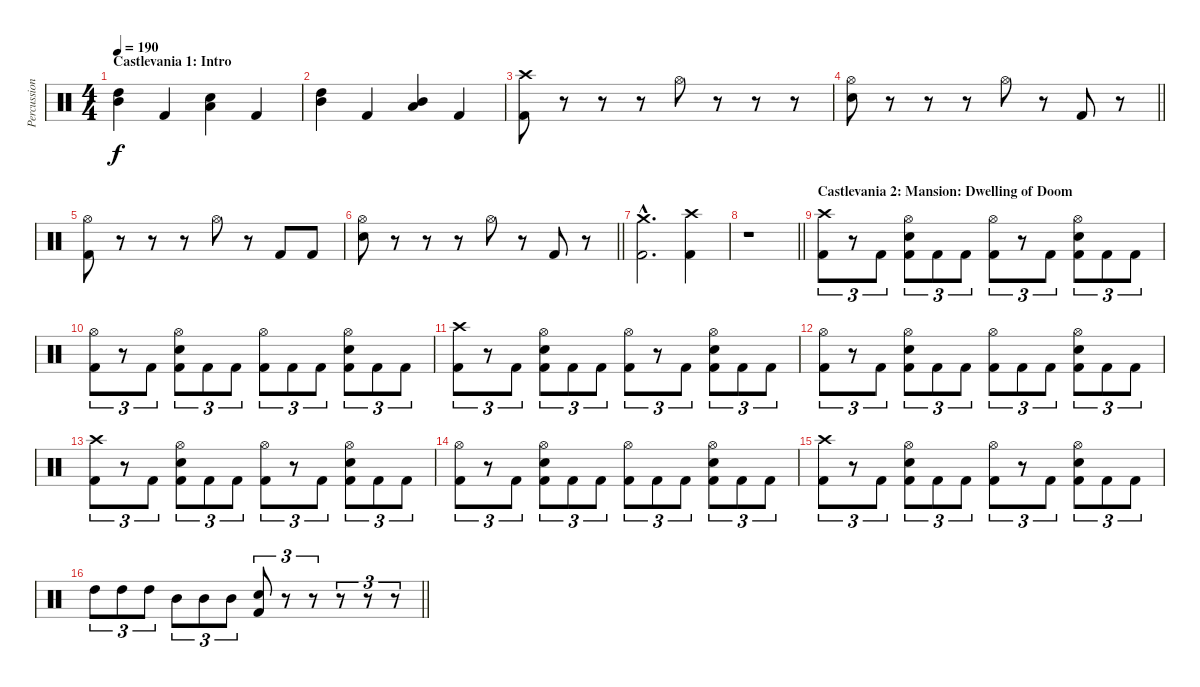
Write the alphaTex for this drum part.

\track ("Percussion" "Percussion") {instrument percussion}
\staff {score}
\articulation defaults
\ts (4 4)
\section ("" "Castlevania 1: Intro")
\tempo 190
\clef neutral
\ks c
("High Tom (hit)" "Mid Tom (hit)").4{dy f} "Kick (hit) 2".4 ("Low Tom (hit)" "Snare (hit) 2").4 "Kick (hit) 2".4 |
("High Tom (hit)" "Mid Tom (hit)").4 "Kick (hit) 2".4 ("Mid Tom (hit)" "Low Tom (hit)").4 "Kick (hit) 2".4 |
("Crash high (hit)" "Kick (hit) 2").8 r.8 r.8 r.8 "Hi-Hat (open)".8 r.8 r.8 r.8 |
\barLineRight lightlight
("Hi-Hat (open)" "Snare (hit) 2").8 r.8 r.8 r.8 "Hi-Hat (open)".8 r.8 "Kick (hit) 2".8 r.8 |
("Hi-Hat (open)" "Kick (hit) 2").8 r.8 r.8 r.8 "Hi-Hat (open)".8 r.8 "Kick (hit) 2".8 "Kick (hit) 2".8 |
\barLineRight lightlight
("Hi-Hat (open)" "Snare (hit) 2").8 r.8 r.8 r.8 "Hi-Hat (open)".8 r.8 "Kick (hit) 2".8 r.8 |
("Crash medium (hit)"{hac} "Kick (hit) 2"{hac}).2{d} ("Crash high (hit)" "Kick (hit) 2").4 |
\barLineRight lightlight
r.1 |
\section ("" "Castlevania 2: Mansion: Dwelling of Doom")
("Crash high (hit)" "Kick (hit) 2").8{tu (3 2)} r.8{tu (3 2)} "Kick (hit) 2".8{tu (3 2)} ("Hi-Hat (open)" "Snare (hit) 2" "Kick (hit) 2").8{tu (3 2)} "Kick (hit) 2".8{tu (3 2)} "Kick (hit) 2".8{tu (3 2)} ("Hi-Hat (open)" "Kick (hit) 2").8{tu (3 2)} r.8{tu (3 2)} "Kick (hit) 2".8{tu (3 2)} ("Hi-Hat (open)" "Snare (hit) 2" "Kick (hit) 2").8{tu (3 2)} "Kick (hit) 2".8{tu (3 2)} "Kick (hit) 2".8{tu (3 2)} |
("Hi-Hat (open)" "Kick (hit) 2").8{tu (3 2)} r.8{tu (3 2)} "Kick (hit) 2".8{tu (3 2)} ("Hi-Hat (open)" "Snare (hit) 2" "Kick (hit) 2").8{tu (3 2)} "Kick (hit) 2".8{tu (3 2)} "Kick (hit) 2".8{tu (3 2)} ("Hi-Hat (open)" "Kick (hit) 2").8{tu (3 2)} "Kick (hit) 2".8{tu (3 2)} "Kick (hit) 2".8{tu (3 2)} ("Hi-Hat (open)" "Snare (hit) 2" "Kick (hit) 2").8{tu (3 2)} "Kick (hit) 2".8{tu (3 2)} "Kick (hit) 2".8{tu (3 2)} |
("Crash high (hit)" "Kick (hit) 2").8{tu (3 2)} r.8{tu (3 2)} "Kick (hit) 2".8{tu (3 2)} ("Hi-Hat (open)" "Snare (hit) 2" "Kick (hit) 2").8{tu (3 2)} "Kick (hit) 2".8{tu (3 2)} "Kick (hit) 2".8{tu (3 2)} ("Hi-Hat (open)" "Kick (hit) 2").8{tu (3 2)} r.8{tu (3 2)} "Kick (hit) 2".8{tu (3 2)} ("Hi-Hat (open)" "Snare (hit) 2" "Kick (hit) 2").8{tu (3 2)} "Kick (hit) 2".8{tu (3 2)} "Kick (hit) 2".8{tu (3 2)} |
("Hi-Hat (open)" "Kick (hit) 2").8{tu (3 2)} r.8{tu (3 2)} "Kick (hit) 2".8{tu (3 2)} ("Hi-Hat (open)" "Snare (hit) 2" "Kick (hit) 2").8{tu (3 2)} "Kick (hit) 2".8{tu (3 2)} "Kick (hit) 2".8{tu (3 2)} ("Hi-Hat (open)" "Kick (hit) 2").8{tu (3 2)} "Kick (hit) 2".8{tu (3 2)} "Kick (hit) 2".8{tu (3 2)} ("Hi-Hat (open)" "Snare (hit) 2" "Kick (hit) 2").8{tu (3 2)} "Kick (hit) 2".8{tu (3 2)} "Kick (hit) 2".8{tu (3 2)} |
("Crash high (hit)" "Kick (hit) 2").8{tu (3 2)} r.8{tu (3 2)} "Kick (hit) 2".8{tu (3 2)} ("Hi-Hat (open)" "Snare (hit) 2" "Kick (hit) 2").8{tu (3 2)} "Kick (hit) 2".8{tu (3 2)} "Kick (hit) 2".8{tu (3 2)} ("Hi-Hat (open)" "Kick (hit) 2").8{tu (3 2)} r.8{tu (3 2)} "Kick (hit) 2".8{tu (3 2)} ("Hi-Hat (open)" "Snare (hit) 2" "Kick (hit) 2").8{tu (3 2)} "Kick (hit) 2".8{tu (3 2)} "Kick (hit) 2".8{tu (3 2)} |
("Hi-Hat (open)" "Kick (hit) 2").8{tu (3 2)} r.8{tu (3 2)} "Kick (hit) 2".8{tu (3 2)} ("Hi-Hat (open)" "Snare (hit) 2" "Kick (hit) 2").8{tu (3 2)} "Kick (hit) 2".8{tu (3 2)} "Kick (hit) 2".8{tu (3 2)} ("Hi-Hat (open)" "Kick (hit) 2").8{tu (3 2)} "Kick (hit) 2".8{tu (3 2)} "Kick (hit) 2".8{tu (3 2)} ("Hi-Hat (open)" "Snare (hit) 2" "Kick (hit) 2").8{tu (3 2)} "Kick (hit) 2".8{tu (3 2)} "Kick (hit) 2".8{tu (3 2)} |
("Crash high (hit)" "Kick (hit) 2").8{tu (3 2)} r.8{tu (3 2)} "Kick (hit) 2".8{tu (3 2)} ("Hi-Hat (open)" "Snare (hit) 2" "Kick (hit) 2").8{tu (3 2)} "Kick (hit) 2".8{tu (3 2)} "Kick (hit) 2".8{tu (3 2)} ("Hi-Hat (open)" "Kick (hit) 2").8{tu (3 2)} r.8{tu (3 2)} "Kick (hit) 2".8{tu (3 2)} ("Hi-Hat (open)" "Snare (hit) 2" "Kick (hit) 2").8{tu (3 2)} "Kick (hit) 2".8{tu (3 2)} "Kick (hit) 2".8{tu (3 2)} |
\barLineRight lightlight "High Tom (hit)".8{tu (3 2)} "High Tom (hit)".8{tu (3 2)} "High Tom (hit)".8{tu (3 2)} "Mid Tom (hit)".8{tu (3 2)} "Mid Tom (hit)".8{tu (3 2)} "Mid Tom (hit)".8{tu (3 2)}
("Snare (hit) 2" "Kick (hit) 2").8{tu (3 2)} r.8{tu (3 2)} r.8{tu (3 2)} r.8{tu (3 2)} r.8{tu (3 2)} r.8{tu (3 2)}
